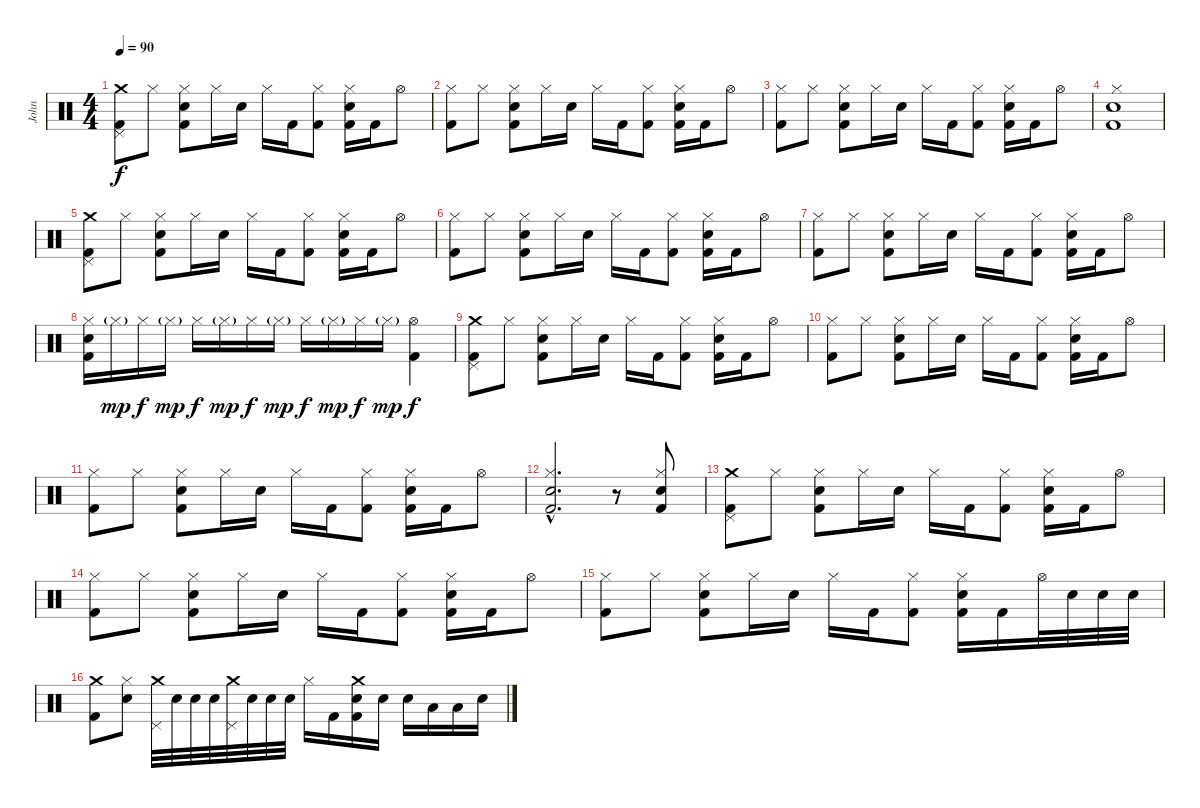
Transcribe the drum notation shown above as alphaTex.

\track ("John" "John") {instrument percussion}
\staff {score}
\articulation defaults
\ts (4 4)
\tempo 90
\clef neutral
\ks c
("Crash medium (hit)" "Kick (hit) 2" "Pedal Hi-Hat (hit)").8{dy f} "Hi-Hat (closed)".8 ("Kick (hit) 2" "Hi-Hat (closed)" "Electric Snare (hit)").8 "Hi-Hat (closed)".16 "Electric Snare (hit)".16 "Hi-Hat (closed)".16 "Kick (hit) 2".16 ("Kick (hit) 2" "Hi-Hat (closed)").8 ("Kick (hit) 2" "Hi-Hat (closed)" "Electric Snare (hit)").16 "Kick (hit) 2".16 "Hi-Hat (open)".8 |
("Kick (hit) 2" "Hi-Hat (closed)").8 "Hi-Hat (closed)".8 ("Kick (hit) 2" "Hi-Hat (closed)" "Electric Snare (hit)").8 "Hi-Hat (closed)".16 "Electric Snare (hit)".16 "Hi-Hat (closed)".16 "Kick (hit) 2".16 ("Kick (hit) 2" "Hi-Hat (closed)").8 ("Kick (hit) 2" "Hi-Hat (closed)" "Electric Snare (hit)").16 "Kick (hit) 2".16 "Hi-Hat (open)".8 |
("Kick (hit) 2" "Hi-Hat (closed)").8 "Hi-Hat (closed)".8 ("Kick (hit) 2" "Hi-Hat (closed)" "Electric Snare (hit)").8 "Hi-Hat (closed)".16 "Electric Snare (hit)".16 "Hi-Hat (closed)".16 "Kick (hit) 2".16 ("Kick (hit) 2" "Hi-Hat (closed)").8 ("Kick (hit) 2" "Hi-Hat (closed)" "Electric Snare (hit)").16 "Kick (hit) 2".16 "Hi-Hat (open)".8 |
("Kick (hit) 2" "Hi-Hat (closed)" "Electric Snare (hit)").1 |
("Crash medium (hit)" "Kick (hit) 2" "Pedal Hi-Hat (hit)").8 "Hi-Hat (closed)".8 ("Kick (hit) 2" "Hi-Hat (closed)" "Electric Snare (hit)").8 "Hi-Hat (closed)".16 "Electric Snare (hit)".16 "Hi-Hat (closed)".16 "Kick (hit) 2".16 ("Kick (hit) 2" "Hi-Hat (closed)").8 ("Kick (hit) 2" "Hi-Hat (closed)" "Electric Snare (hit)").16 "Kick (hit) 2".16 "Hi-Hat (open)".8 |
("Kick (hit) 2" "Hi-Hat (closed)").8 "Hi-Hat (closed)".8 ("Kick (hit) 2" "Hi-Hat (closed)" "Electric Snare (hit)").8 "Hi-Hat (closed)".16 "Electric Snare (hit)".16 "Hi-Hat (closed)".16 "Kick (hit) 2".16 ("Kick (hit) 2" "Hi-Hat (closed)").8 ("Kick (hit) 2" "Hi-Hat (closed)" "Electric Snare (hit)").16 "Kick (hit) 2".16 "Hi-Hat (open)".8 |
("Kick (hit) 2" "Hi-Hat (closed)").8 "Hi-Hat (closed)".8 ("Kick (hit) 2" "Hi-Hat (closed)" "Electric Snare (hit)").8 "Hi-Hat (closed)".16 "Electric Snare (hit)".16 "Hi-Hat (closed)".16 "Kick (hit) 2".16 ("Kick (hit) 2" "Hi-Hat (closed)").8 ("Kick (hit) 2" "Hi-Hat (closed)" "Electric Snare (hit)").16 "Kick (hit) 2".16 "Hi-Hat (open)".8 |
("Kick (hit) 2" "Hi-Hat (closed)" "Electric Snare (hit)").16 "Hi-Hat (closed)"{g}.16{dy mp} "Hi-Hat (closed)".16{dy f} "Hi-Hat (closed)"{g}.16{dy mp} "Hi-Hat (closed)".16{dy f} "Hi-Hat (closed)"{g}.16{dy mp} "Hi-Hat (closed)".16{dy f} "Hi-Hat (closed)"{g}.16{dy mp} "Hi-Hat (closed)".16{dy f} "Hi-Hat (closed)"{g}.16{dy mp} "Hi-Hat (closed)".16{dy f} "Hi-Hat (closed)"{g}.16{dy mp} ("Kick (hit) 2" "Hi-Hat (open)").4{dy f} |
("Crash medium (hit)" "Kick (hit) 2" "Pedal Hi-Hat (hit)").8 "Hi-Hat (closed)".8 ("Kick (hit) 2" "Hi-Hat (closed)" "Electric Snare (hit)").8 "Hi-Hat (closed)".16 "Electric Snare (hit)".16 "Hi-Hat (closed)".16 "Kick (hit) 2".16 ("Kick (hit) 2" "Hi-Hat (closed)").8 ("Kick (hit) 2" "Hi-Hat (closed)" "Electric Snare (hit)").16 "Kick (hit) 2".16 "Hi-Hat (open)".8 |
("Kick (hit) 2" "Hi-Hat (closed)").8 "Hi-Hat (closed)".8 ("Kick (hit) 2" "Hi-Hat (closed)" "Electric Snare (hit)").8 "Hi-Hat (closed)".16 "Electric Snare (hit)".16 "Hi-Hat (closed)".16 "Kick (hit) 2".16 ("Kick (hit) 2" "Hi-Hat (closed)").8 ("Kick (hit) 2" "Hi-Hat (closed)" "Electric Snare (hit)").16 "Kick (hit) 2".16 "Hi-Hat (open)".8 |
("Kick (hit) 2" "Hi-Hat (closed)").8 "Hi-Hat (closed)".8 ("Kick (hit) 2" "Hi-Hat (closed)" "Electric Snare (hit)").8 "Hi-Hat (closed)".16 "Electric Snare (hit)".16 "Hi-Hat (closed)".16 "Kick (hit) 2".16 ("Kick (hit) 2" "Hi-Hat (closed)").8 ("Kick (hit) 2" "Hi-Hat (closed)" "Electric Snare (hit)").16 "Kick (hit) 2".16 "Hi-Hat (open)".8 |
("Kick (hit) 2"{hac} "Hi-Hat (closed)"{hac} "Electric Snare (hit)"{hac}).2{d} r.8 ("Kick (hit) 2" "Hi-Hat (closed)" "Electric Snare (hit)").8 |
("Crash medium (hit)" "Kick (hit) 2" "Pedal Hi-Hat (hit)").8 "Hi-Hat (closed)".8 ("Kick (hit) 2" "Hi-Hat (closed)" "Electric Snare (hit)").8 "Hi-Hat (closed)".16 "Electric Snare (hit)".16 "Hi-Hat (closed)".16 "Kick (hit) 2".16 ("Kick (hit) 2" "Hi-Hat (closed)").8 ("Kick (hit) 2" "Hi-Hat (closed)" "Electric Snare (hit)").16 "Kick (hit) 2".16 "Hi-Hat (open)".8 |
("Kick (hit) 2" "Hi-Hat (closed)").8 "Hi-Hat (closed)".8 ("Kick (hit) 2" "Hi-Hat (closed)" "Electric Snare (hit)").8 "Hi-Hat (closed)".16 "Electric Snare (hit)".16 "Hi-Hat (closed)".16 "Kick (hit) 2".16 ("Kick (hit) 2" "Hi-Hat (closed)").8 ("Kick (hit) 2" "Hi-Hat (closed)" "Electric Snare (hit)").16 "Kick (hit) 2".16 "Hi-Hat (open)".8 |
("Kick (hit) 2" "Hi-Hat (closed)").8 "Hi-Hat (closed)".8 ("Kick (hit) 2" "Hi-Hat (closed)" "Electric Snare (hit)").8 "Hi-Hat (closed)".16 "Electric Snare (hit)".16 "Hi-Hat (closed)".16 "Kick (hit) 2".16 ("Kick (hit) 2" "Hi-Hat (closed)").8 ("Kick (hit) 2" "Hi-Hat (closed)" "Electric Snare (hit)").16 "Kick (hit) 2".16 "Hi-Hat (open)".32 "Electric Snare (hit)".32 "Electric Snare (hit)".32 "Electric Snare (hit)".32 |
("Crash medium (hit)" "Kick (hit) 2").8 ("Hi-Hat (closed)" "Electric Snare (hit)").8 ("Crash medium (hit)" "Pedal Hi-Hat (hit)").32 "Electric Snare (hit)".32 "Electric Snare (hit)".32 "Electric Snare (hit)".32 ("Crash medium (hit)" "Pedal Hi-Hat (hit)").32 "Electric Snare (hit)".32 "Electric Snare (hit)".32 "Electric Snare (hit)".32 "Hi-Hat (closed)".16 "Kick (hit) 2".16 ("Crash medium (hit)" "Kick (hit) 2" "Electric Snare (hit)").16 "Electric Snare (hit)".16 "Electric Snare (hit)".16 "Low Tom (hit)".16 "Low Floor Tom (hit)".16 "Electric Snare (hit)".16
